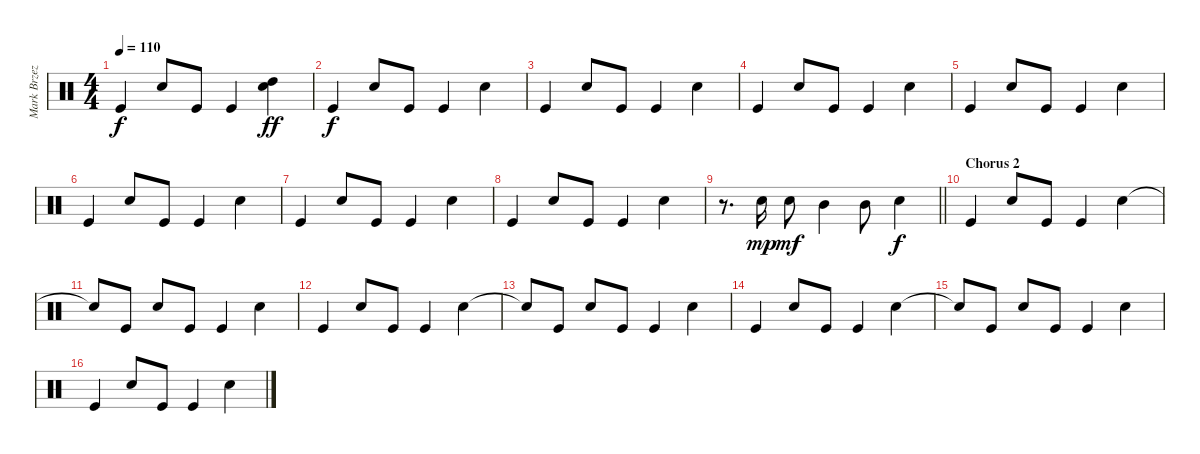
\track ("Mark Brzezicki - Toms, Snare & Bass Drum" "Mark Brzez") {instrument percussion}
\staff {score}
\articulation defaults
\ts (4 4)
\tempo 110
\clef neutral
\ks c "Kick (hit)".4{dy f} "Electric Snare (hit)".8 "Kick (hit)".8 "Kick (hit)".4
("High Tom (hit)" "Electric Snare (hit)").4{dy ff} |
"Kick (hit)".4{dy f} "Electric Snare (hit)".8 "Kick (hit)".8 "Kick (hit)".4 "Electric Snare (hit)".4 |
"Kick (hit)".4 "Electric Snare (hit)".8 "Kick (hit)".8 "Kick (hit)".4 "Electric Snare (hit)".4 |
"Kick (hit)".4 "Electric Snare (hit)".8 "Kick (hit)".8 "Kick (hit)".4 "Electric Snare (hit)".4 |
"Kick (hit)".4 "Electric Snare (hit)".8 "Kick (hit)".8 "Kick (hit)".4 "Electric Snare (hit)".4 |
"Kick (hit)".4 "Electric Snare (hit)".8 "Kick (hit)".8 "Kick (hit)".4 "Electric Snare (hit)".4 |
"Kick (hit)".4 "Electric Snare (hit)".8 "Kick (hit)".8 "Kick (hit)".4 "Electric Snare (hit)".4 |
"Kick (hit)".4 "Electric Snare (hit)".8 "Kick (hit)".8 "Kick (hit)".4 "Electric Snare (hit)".4 |
\barLineRight lightlight
r.8{d} "Electric Snare (hit)".16{dy mp} "Electric Snare (hit)".8{dy mf} "Mid Tom (hit)".4 "Mid Tom (hit)".8 "Electric Snare (hit)".4{dy f} |
\section ("" "Chorus 2")
"Kick (hit)".4 "Electric Snare (hit)".8 "Kick (hit)".8 "Kick (hit)".4 "Electric Snare (hit)".4 |
"Snare (hit)"{t}.8 "Kick (hit)".8 "Electric Snare (hit)".8 "Kick (hit)".8 "Kick (hit)".4 "Electric Snare (hit)".4 |
"Kick (hit)".4 "Electric Snare (hit)".8 "Kick (hit)".8 "Kick (hit)".4 "Electric Snare (hit)".4 |
"Snare (hit)"{t}.8 "Kick (hit)".8 "Electric Snare (hit)".8 "Kick (hit)".8 "Kick (hit)".4 "Electric Snare (hit)".4 |
"Kick (hit)".4 "Electric Snare (hit)".8 "Kick (hit)".8 "Kick (hit)".4 "Electric Snare (hit)".4 |
"Snare (hit)"{t}.8 "Kick (hit)".8 "Electric Snare (hit)".8 "Kick (hit)".8 "Kick (hit)".4 "Electric Snare (hit)".4 |
"Kick (hit)".4 "Electric Snare (hit)".8 "Kick (hit)".8 "Kick (hit)".4 "Electric Snare (hit)".4
